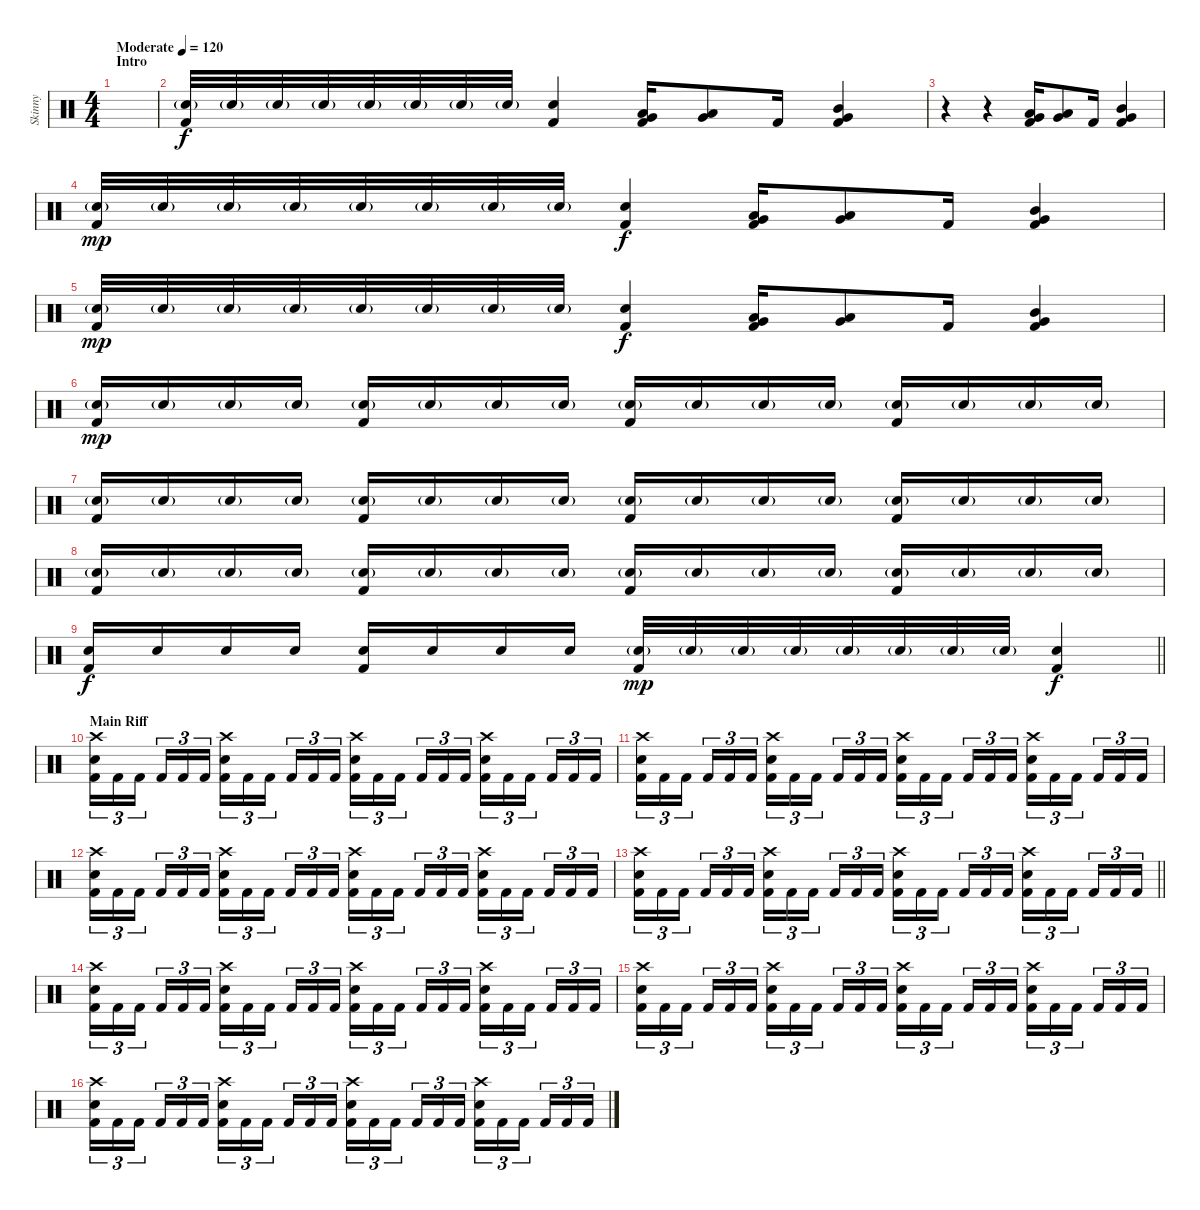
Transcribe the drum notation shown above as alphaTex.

\track ("Skinny" "Skinny") {instrument percussion}
\staff {score}
\articulation defaults
\ts (4 4)
\section ("" "Intro")
\tempo (120 "Moderate")
\clef neutral
\ks c
|
("Electric Snare (hit)"{g} "Kick (hit) 2").32 "Electric Snare (hit)"{g}.32 "Electric Snare (hit)"{g}.32 "Electric Snare (hit)"{g}.32 "Electric Snare (hit)"{g}.32 "Electric Snare (hit)"{g}.32 "Electric Snare (hit)"{g}.32 "Electric Snare (hit)"{g}.32 ("Electric Snare (hit)" "Kick (hit) 2").4{dy f} ("Low Tom (hit)" "Very Low Tom (hit)" "Kick (hit) 2").16 ("Low Tom (hit)" "Very Low Tom (hit)").8 "Kick (hit) 2".16 ("Mid Tom (hit)" "Very Low Tom (hit)" "Kick (hit) 2").4 |
r.4 r.4 ("Low Tom (hit)" "Very Low Tom (hit)" "Kick (hit) 2").16 ("Low Tom (hit)" "Very Low Tom (hit)").8 "Kick (hit) 2".16 ("Mid Tom (hit)" "Very Low Tom (hit)" "Kick (hit) 2").4 |
("Electric Snare (hit)"{g} "Kick (hit) 2").32{dy mp} "Electric Snare (hit)"{g}.32 "Electric Snare (hit)"{g}.32 "Electric Snare (hit)"{g}.32 "Electric Snare (hit)"{g}.32 "Electric Snare (hit)"{g}.32 "Electric Snare (hit)"{g}.32 "Electric Snare (hit)"{g}.32 ("Electric Snare (hit)" "Kick (hit) 2").4{dy f} ("Low Tom (hit)" "Very Low Tom (hit)" "Kick (hit) 2").16 ("Low Tom (hit)" "Very Low Tom (hit)").8 "Kick (hit) 2".16 ("Mid Tom (hit)" "Very Low Tom (hit)" "Kick (hit) 2").4 |
("Electric Snare (hit)"{g} "Kick (hit) 2").32{dy mp} "Electric Snare (hit)"{g}.32 "Electric Snare (hit)"{g}.32 "Electric Snare (hit)"{g}.32 "Electric Snare (hit)"{g}.32 "Electric Snare (hit)"{g}.32 "Electric Snare (hit)"{g}.32 "Electric Snare (hit)"{g}.32 ("Electric Snare (hit)" "Kick (hit) 2").4{dy f} ("Low Tom (hit)" "Very Low Tom (hit)" "Kick (hit) 2").16 ("Low Tom (hit)" "Very Low Tom (hit)").8 "Kick (hit) 2".16 ("Mid Tom (hit)" "Very Low Tom (hit)" "Kick (hit) 2").4 |
("Electric Snare (hit)"{g} "Kick (hit) 2").16{dy mp} "Electric Snare (hit)"{g}.16 "Electric Snare (hit)"{g}.16 "Electric Snare (hit)"{g}.16 ("Electric Snare (hit)"{g} "Kick (hit) 2").16 "Electric Snare (hit)"{g}.16 "Electric Snare (hit)"{g}.16 "Electric Snare (hit)"{g}.16 ("Electric Snare (hit)"{g} "Kick (hit) 2").16 "Electric Snare (hit)"{g}.16 "Electric Snare (hit)"{g}.16 "Electric Snare (hit)"{g}.16 ("Electric Snare (hit)"{g} "Kick (hit) 2").16 "Electric Snare (hit)"{g}.16 "Electric Snare (hit)"{g}.16 "Electric Snare (hit)"{g}.16 |
("Electric Snare (hit)"{g} "Kick (hit) 2").16 "Electric Snare (hit)"{g}.16 "Electric Snare (hit)"{g}.16 "Electric Snare (hit)"{g}.16 ("Electric Snare (hit)"{g} "Kick (hit) 2").16 "Electric Snare (hit)"{g}.16 "Electric Snare (hit)"{g}.16 "Electric Snare (hit)"{g}.16 ("Electric Snare (hit)"{g} "Kick (hit) 2").16 "Electric Snare (hit)"{g}.16 "Electric Snare (hit)"{g}.16 "Electric Snare (hit)"{g}.16 ("Electric Snare (hit)"{g} "Kick (hit) 2").16 "Electric Snare (hit)"{g}.16 "Electric Snare (hit)"{g}.16 "Electric Snare (hit)"{g}.16 |
("Electric Snare (hit)"{g} "Kick (hit) 2").16 "Electric Snare (hit)"{g}.16 "Electric Snare (hit)"{g}.16 "Electric Snare (hit)"{g}.16 ("Electric Snare (hit)"{g} "Kick (hit) 2").16 "Electric Snare (hit)"{g}.16 "Electric Snare (hit)"{g}.16 "Electric Snare (hit)"{g}.16 ("Electric Snare (hit)"{g} "Kick (hit) 2").16 "Electric Snare (hit)"{g}.16 "Electric Snare (hit)"{g}.16 "Electric Snare (hit)"{g}.16 ("Electric Snare (hit)"{g} "Kick (hit) 2").16 "Electric Snare (hit)"{g}.16 "Electric Snare (hit)"{g}.16 "Electric Snare (hit)"{g}.16 |
\barLineRight lightlight
("Electric Snare (hit)" "Kick (hit) 2").16{dy f} "Electric Snare (hit)".16 "Electric Snare (hit)".16 "Electric Snare (hit)".16 ("Electric Snare (hit)" "Kick (hit) 2").16 "Electric Snare (hit)".16 "Electric Snare (hit)".16 "Electric Snare (hit)".16 ("Electric Snare (hit)"{g} "Kick (hit) 2").32{dy mp} "Electric Snare (hit)"{g}.32 "Electric Snare (hit)"{g}.32 "Electric Snare (hit)"{g}.32 "Electric Snare (hit)"{g}.32 "Electric Snare (hit)"{g}.32 "Electric Snare (hit)"{g}.32 "Electric Snare (hit)"{g}.32 ("Electric Snare (hit)" "Kick (hit) 2").4{dy f} |
\section ("" "Main Riff")
("Crash high (hit)" "Electric Snare (hit)" "Kick (hit) 2").16{tu (3 2)} "Kick (hit) 2".16{tu (3 2)} "Kick (hit) 2".16{tu (3 2) beam splitsecondary} "Kick (hit) 2".16{tu (3 2)} "Kick (hit) 2".16{tu (3 2)} "Kick (hit) 2".16{tu (3 2)} ("Crash high (hit)" "Electric Snare (hit)" "Kick (hit) 2").16{tu (3 2)} "Kick (hit) 2".16{tu (3 2)} "Kick (hit) 2".16{tu (3 2) beam splitsecondary} "Kick (hit) 2".16{tu (3 2)} "Kick (hit) 2".16{tu (3 2)} "Kick (hit) 2".16{tu (3 2)} ("Crash high (hit)" "Electric Snare (hit)" "Kick (hit) 2").16{tu (3 2)} "Kick (hit) 2".16{tu (3 2)} "Kick (hit) 2".16{tu (3 2) beam splitsecondary} "Kick (hit) 2".16{tu (3 2)} "Kick (hit) 2".16{tu (3 2)} "Kick (hit) 2".16{tu (3 2)} ("Crash high (hit)" "Electric Snare (hit)" "Kick (hit) 2").16{tu (3 2)} "Kick (hit) 2".16{tu (3 2)} "Kick (hit) 2".16{tu (3 2) beam splitsecondary} "Kick (hit) 2".16{tu (3 2)} "Kick (hit) 2".16{tu (3 2)} "Kick (hit) 2".16{tu (3 2)} |
("Crash high (hit)" "Electric Snare (hit)" "Kick (hit) 2").16{tu (3 2)} "Kick (hit) 2".16{tu (3 2)} "Kick (hit) 2".16{tu (3 2) beam splitsecondary} "Kick (hit) 2".16{tu (3 2)} "Kick (hit) 2".16{tu (3 2)} "Kick (hit) 2".16{tu (3 2)} ("Crash high (hit)" "Electric Snare (hit)" "Kick (hit) 2").16{tu (3 2)} "Kick (hit) 2".16{tu (3 2)} "Kick (hit) 2".16{tu (3 2) beam splitsecondary} "Kick (hit) 2".16{tu (3 2)} "Kick (hit) 2".16{tu (3 2)} "Kick (hit) 2".16{tu (3 2)} ("Crash high (hit)" "Electric Snare (hit)" "Kick (hit) 2").16{tu (3 2)} "Kick (hit) 2".16{tu (3 2)} "Kick (hit) 2".16{tu (3 2) beam splitsecondary} "Kick (hit) 2".16{tu (3 2)} "Kick (hit) 2".16{tu (3 2)} "Kick (hit) 2".16{tu (3 2)} ("Crash high (hit)" "Electric Snare (hit)" "Kick (hit) 2").16{tu (3 2)} "Kick (hit) 2".16{tu (3 2)} "Kick (hit) 2".16{tu (3 2) beam splitsecondary} "Kick (hit) 2".16{tu (3 2)} "Kick (hit) 2".16{tu (3 2)} "Kick (hit) 2".16{tu (3 2)} |
("Crash high (hit)" "Electric Snare (hit)" "Kick (hit) 2").16{tu (3 2)} "Kick (hit) 2".16{tu (3 2)} "Kick (hit) 2".16{tu (3 2) beam splitsecondary} "Kick (hit) 2".16{tu (3 2)} "Kick (hit) 2".16{tu (3 2)} "Kick (hit) 2".16{tu (3 2)} ("Crash high (hit)" "Electric Snare (hit)" "Kick (hit) 2").16{tu (3 2)} "Kick (hit) 2".16{tu (3 2)} "Kick (hit) 2".16{tu (3 2) beam splitsecondary} "Kick (hit) 2".16{tu (3 2)} "Kick (hit) 2".16{tu (3 2)} "Kick (hit) 2".16{tu (3 2)} ("Crash high (hit)" "Electric Snare (hit)" "Kick (hit) 2").16{tu (3 2)} "Kick (hit) 2".16{tu (3 2)} "Kick (hit) 2".16{tu (3 2) beam splitsecondary} "Kick (hit) 2".16{tu (3 2)} "Kick (hit) 2".16{tu (3 2)} "Kick (hit) 2".16{tu (3 2)} ("Crash high (hit)" "Electric Snare (hit)" "Kick (hit) 2").16{tu (3 2)} "Kick (hit) 2".16{tu (3 2)} "Kick (hit) 2".16{tu (3 2) beam splitsecondary} "Kick (hit) 2".16{tu (3 2)} "Kick (hit) 2".16{tu (3 2)} "Kick (hit) 2".16{tu (3 2)} |
\barLineRight lightlight
("Crash high (hit)" "Electric Snare (hit)" "Kick (hit) 2").16{tu (3 2)} "Kick (hit) 2".16{tu (3 2)} "Kick (hit) 2".16{tu (3 2) beam splitsecondary} "Kick (hit) 2".16{tu (3 2)} "Kick (hit) 2".16{tu (3 2)} "Kick (hit) 2".16{tu (3 2)} ("Crash high (hit)" "Electric Snare (hit)" "Kick (hit) 2").16{tu (3 2)} "Kick (hit) 2".16{tu (3 2)} "Kick (hit) 2".16{tu (3 2) beam splitsecondary} "Kick (hit) 2".16{tu (3 2)} "Kick (hit) 2".16{tu (3 2)} "Kick (hit) 2".16{tu (3 2)} ("Crash high (hit)" "Electric Snare (hit)" "Kick (hit) 2").16{tu (3 2)} "Kick (hit) 2".16{tu (3 2)} "Kick (hit) 2".16{tu (3 2) beam splitsecondary} "Kick (hit) 2".16{tu (3 2)} "Kick (hit) 2".16{tu (3 2)} "Kick (hit) 2".16{tu (3 2)} ("Crash high (hit)" "Electric Snare (hit)" "Kick (hit) 2").16{tu (3 2)} "Kick (hit) 2".16{tu (3 2)} "Kick (hit) 2".16{tu (3 2) beam splitsecondary} "Kick (hit) 2".16{tu (3 2)} "Kick (hit) 2".16{tu (3 2)} "Kick (hit) 2".16{tu (3 2)} |
("Crash high (hit)" "Electric Snare (hit)" "Kick (hit) 2").16{tu (3 2)} "Kick (hit) 2".16{tu (3 2)} "Kick (hit) 2".16{tu (3 2) beam splitsecondary} "Kick (hit) 2".16{tu (3 2)} "Kick (hit) 2".16{tu (3 2)} "Kick (hit) 2".16{tu (3 2)} ("Crash high (hit)" "Electric Snare (hit)" "Kick (hit) 2").16{tu (3 2)} "Kick (hit) 2".16{tu (3 2)} "Kick (hit) 2".16{tu (3 2) beam splitsecondary} "Kick (hit) 2".16{tu (3 2)} "Kick (hit) 2".16{tu (3 2)} "Kick (hit) 2".16{tu (3 2)} ("Crash high (hit)" "Electric Snare (hit)" "Kick (hit) 2").16{tu (3 2)} "Kick (hit) 2".16{tu (3 2)} "Kick (hit) 2".16{tu (3 2) beam splitsecondary} "Kick (hit) 2".16{tu (3 2)} "Kick (hit) 2".16{tu (3 2)} "Kick (hit) 2".16{tu (3 2)} ("Crash high (hit)" "Electric Snare (hit)" "Kick (hit) 2").16{tu (3 2)} "Kick (hit) 2".16{tu (3 2)} "Kick (hit) 2".16{tu (3 2) beam splitsecondary} "Kick (hit) 2".16{tu (3 2)} "Kick (hit) 2".16{tu (3 2)} "Kick (hit) 2".16{tu (3 2)} |
("Crash high (hit)" "Electric Snare (hit)" "Kick (hit) 2").16{tu (3 2)} "Kick (hit) 2".16{tu (3 2)} "Kick (hit) 2".16{tu (3 2) beam splitsecondary} "Kick (hit) 2".16{tu (3 2)} "Kick (hit) 2".16{tu (3 2)} "Kick (hit) 2".16{tu (3 2)} ("Crash high (hit)" "Electric Snare (hit)" "Kick (hit) 2").16{tu (3 2)} "Kick (hit) 2".16{tu (3 2)} "Kick (hit) 2".16{tu (3 2) beam splitsecondary} "Kick (hit) 2".16{tu (3 2)} "Kick (hit) 2".16{tu (3 2)} "Kick (hit) 2".16{tu (3 2)} ("Crash high (hit)" "Electric Snare (hit)" "Kick (hit) 2").16{tu (3 2)} "Kick (hit) 2".16{tu (3 2)} "Kick (hit) 2".16{tu (3 2) beam splitsecondary} "Kick (hit) 2".16{tu (3 2)} "Kick (hit) 2".16{tu (3 2)} "Kick (hit) 2".16{tu (3 2)} ("Crash high (hit)" "Electric Snare (hit)" "Kick (hit) 2").16{tu (3 2)} "Kick (hit) 2".16{tu (3 2)} "Kick (hit) 2".16{tu (3 2) beam splitsecondary} "Kick (hit) 2".16{tu (3 2)} "Kick (hit) 2".16{tu (3 2)} "Kick (hit) 2".16{tu (3 2)} |
("Crash high (hit)" "Electric Snare (hit)" "Kick (hit) 2").16{tu (3 2)} "Kick (hit) 2".16{tu (3 2)} "Kick (hit) 2".16{tu (3 2) beam splitsecondary} "Kick (hit) 2".16{tu (3 2)} "Kick (hit) 2".16{tu (3 2)} "Kick (hit) 2".16{tu (3 2)} ("Crash high (hit)" "Electric Snare (hit)" "Kick (hit) 2").16{tu (3 2)} "Kick (hit) 2".16{tu (3 2)} "Kick (hit) 2".16{tu (3 2) beam splitsecondary} "Kick (hit) 2".16{tu (3 2)} "Kick (hit) 2".16{tu (3 2)} "Kick (hit) 2".16{tu (3 2)} ("Crash high (hit)" "Electric Snare (hit)" "Kick (hit) 2").16{tu (3 2)} "Kick (hit) 2".16{tu (3 2)} "Kick (hit) 2".16{tu (3 2) beam splitsecondary} "Kick (hit) 2".16{tu (3 2)} "Kick (hit) 2".16{tu (3 2)} "Kick (hit) 2".16{tu (3 2)} ("Crash high (hit)" "Electric Snare (hit)" "Kick (hit) 2").16{tu (3 2)} "Kick (hit) 2".16{tu (3 2)} "Kick (hit) 2".16{tu (3 2) beam splitsecondary} "Kick (hit) 2".16{tu (3 2)} "Kick (hit) 2".16{tu (3 2)} "Kick (hit) 2".16{tu (3 2)}
